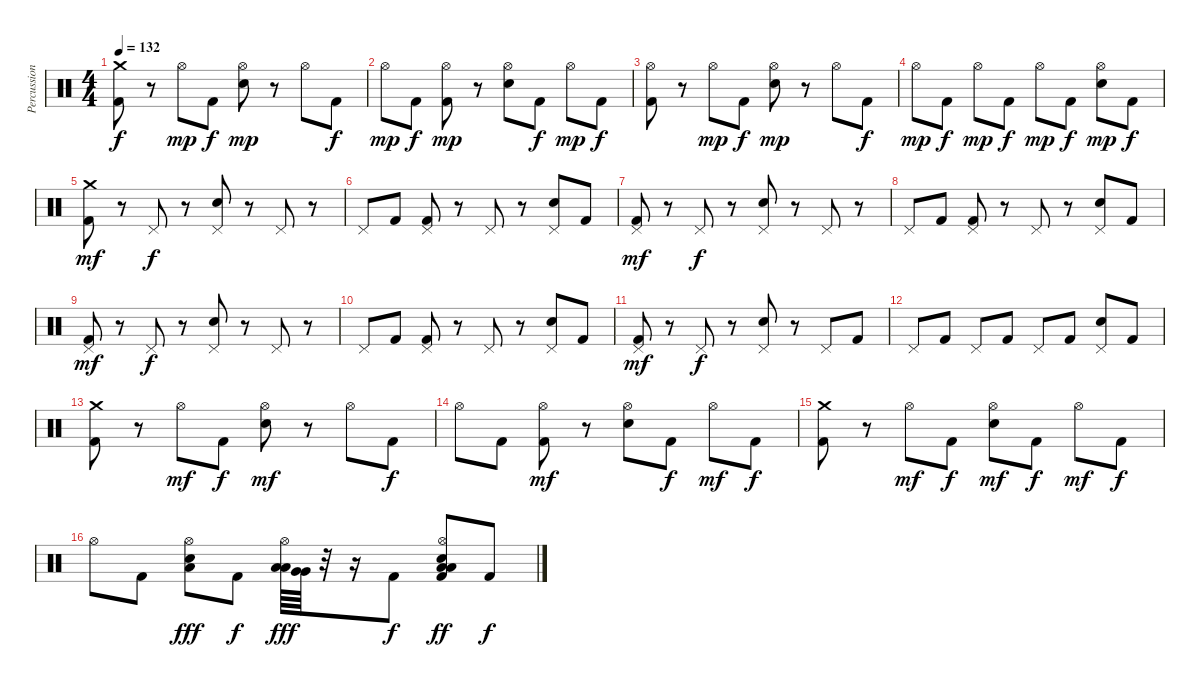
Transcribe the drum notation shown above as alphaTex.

\track ("Percussion" "Percussion") {instrument percussion}
\staff {score}
\articulation defaults
\ts (4 4)
\tempo 132
\clef neutral
\ks c
("Crash medium (hit)" "Kick (hit) 2").8{dy f} r.8 "Hi-Hat (open)".8{dy mp} "Kick (hit) 2".8{dy f} ("Hi-Hat (open)" "Electric Snare (hit)").8{dy mp} r.8 "Hi-Hat (open)".8 "Kick (hit) 2".8{dy f} |
"Hi-Hat (open)".8{dy mp} "Kick (hit) 2".8{dy f} ("Hi-Hat (open)" "Kick (hit) 2").8{dy mp} r.8 ("Hi-Hat (open)" "Electric Snare (hit)").8 "Kick (hit) 2".8{dy f} "Hi-Hat (open)".8{dy mp} "Kick (hit) 2".8{dy f} |
("Hi-Hat (open)" "Kick (hit) 2").8 r.8 "Hi-Hat (open)".8{dy mp} "Kick (hit) 2".8{dy f} ("Hi-Hat (open)" "Electric Snare (hit)").8{dy mp} r.8 "Hi-Hat (open)".8 "Kick (hit) 2".8{dy f} |
"Hi-Hat (open)".8{dy mp} "Kick (hit) 2".8{dy f} "Hi-Hat (open)".8{dy mp} "Kick (hit) 2".8{dy f} "Hi-Hat (open)".8{dy mp} "Kick (hit) 2".8{dy f} ("Hi-Hat (open)" "Electric Snare (hit)").8{dy mp} "Kick (hit) 2".8{dy f} |
("Crash medium (hit)" "Kick (hit) 2").8{dy mf} r.8 "Pedal Hi-Hat (hit)".8{dy f} r.8 ("Pedal Hi-Hat (hit)" "Electric Snare (hit)").8 r.8 "Pedal Hi-Hat (hit)".8 r.8 |
"Pedal Hi-Hat (hit)".8 "Kick (hit) 2".8 ("Pedal Hi-Hat (hit)" "Kick (hit) 2").8 r.8 "Pedal Hi-Hat (hit)".8 r.8 ("Pedal Hi-Hat (hit)" "Electric Snare (hit)").8 "Kick (hit) 2".8 |
("Pedal Hi-Hat (hit)" "Kick (hit) 2").8{dy mf} r.8 "Pedal Hi-Hat (hit)".8{dy f} r.8 ("Pedal Hi-Hat (hit)" "Electric Snare (hit)").8 r.8 "Pedal Hi-Hat (hit)".8 r.8 |
"Pedal Hi-Hat (hit)".8 "Kick (hit) 2".8 ("Pedal Hi-Hat (hit)" "Kick (hit) 2").8 r.8 "Pedal Hi-Hat (hit)".8 r.8 ("Pedal Hi-Hat (hit)" "Electric Snare (hit)").8 "Kick (hit) 2".8 |
("Pedal Hi-Hat (hit)" "Kick (hit) 2").8{dy mf} r.8 "Pedal Hi-Hat (hit)".8{dy f} r.8 ("Pedal Hi-Hat (hit)" "Electric Snare (hit)").8 r.8 "Pedal Hi-Hat (hit)".8 r.8 |
"Pedal Hi-Hat (hit)".8 "Kick (hit) 2".8 ("Pedal Hi-Hat (hit)" "Kick (hit) 2").8 r.8 "Pedal Hi-Hat (hit)".8 r.8 ("Pedal Hi-Hat (hit)" "Electric Snare (hit)").8 "Kick (hit) 2".8 |
("Pedal Hi-Hat (hit)" "Kick (hit) 2").8{dy mf} r.8 "Pedal Hi-Hat (hit)".8{dy f} r.8 ("Pedal Hi-Hat (hit)" "Electric Snare (hit)").8 r.8 "Pedal Hi-Hat (hit)".8 "Kick (hit) 2".8 |
"Pedal Hi-Hat (hit)".8 "Kick (hit) 2".8 "Pedal Hi-Hat (hit)".8 "Kick (hit) 2".8 "Pedal Hi-Hat (hit)".8 "Kick (hit) 2".8 ("Pedal Hi-Hat (hit)" "Electric Snare (hit)").8 "Kick (hit) 2".8 |
("Crash medium (hit)" "Kick (hit) 2").8 r.8 "Hi-Hat (open)".8{dy mf} "Kick (hit) 2".8{dy f} ("Hi-Hat (open)" "Electric Snare (hit)").8{dy mf} r.8 "Hi-Hat (open)".8 "Kick (hit) 2".8{dy f} |
"Hi-Hat (open)".8 "Kick (hit) 2".8 ("Hi-Hat (open)" "Kick (hit) 2").8{dy mf} r.8 ("Hi-Hat (open)" "Electric Snare (hit)").8 "Kick (hit) 2".8{dy f} "Hi-Hat (open)".8{dy mf} "Kick (hit) 2".8{dy f} |
("Crash medium (hit)" "Kick (hit) 2").8 r.8 "Hi-Hat (open)".8{dy mf} "Kick (hit) 2".8{dy f} ("Hi-Hat (open)" "Electric Snare (hit)").8{dy mf} "Kick (hit) 2".8{dy f} "Hi-Hat (open)".8{dy mf} "Kick (hit) 2".8{dy f} |
"Hi-Hat (open)".8 "Kick (hit) 2".8 ("Hi-Hat (open)" "Low Tom (hit)" "Electric Snare (hit)").8{dy fff} "Kick (hit) 2".8{dy f} ("Hi-Hat (open)" "Low Tom (hit)" "Low Tom (hit)").64{dy fff} ("Very Low Tom (hit)" "Very Low Tom (hit)").64 r.32 r.16 "Kick (hit) 2".8{dy f} ("Hi-Hat (open)" "Low Floor Tom (hit)" "Low Floor Tom (hit)" "Electric Snare (hit)" "Kick (hit) 2").8{dy ff} "Kick (hit) 2".8{dy f}
